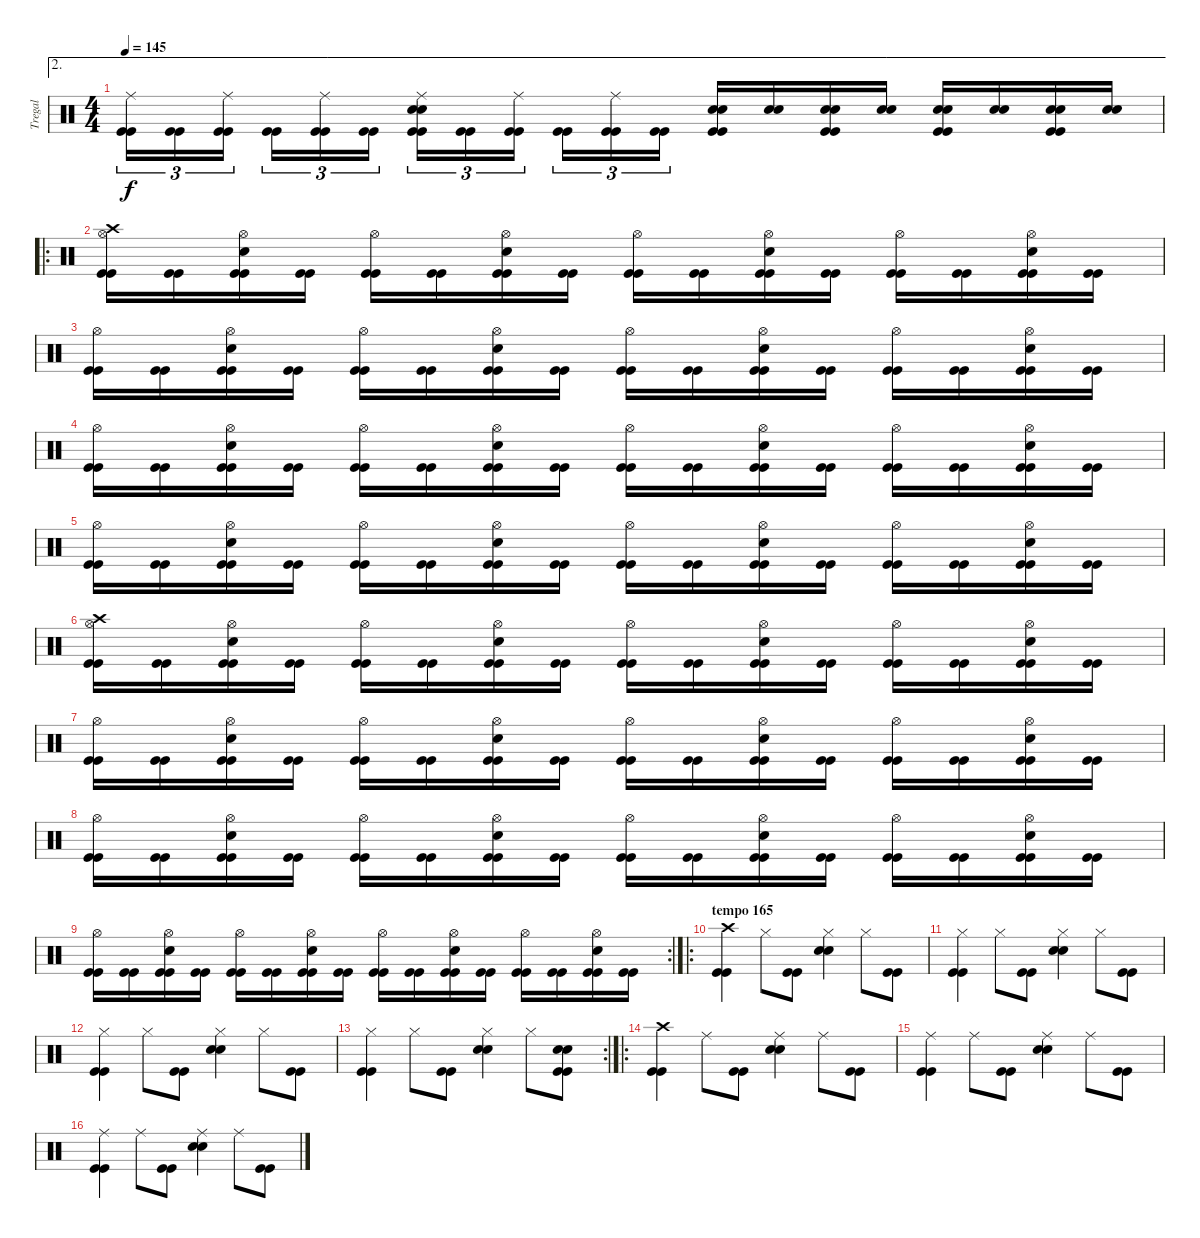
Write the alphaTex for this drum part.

\track ("Tregal" "Tregal") {instrument percussion}
\staff {score}
\articulation defaults
\ae 2
\ts (4 4)
\tempo 145
\clef neutral
\ks c
("Kick (hit)" "Kick (hit)" "Ride (middle)").16{tu (3 2) dy f} ("Kick (hit)" "Kick (hit)").16{tu (3 2)} ("Kick (hit)" "Kick (hit)" "Ride (middle)").16{tu (3 2)} ("Kick (hit)" "Kick (hit)").16{tu (3 2)} ("Kick (hit)" "Kick (hit)" "Ride (middle)").16{tu (3 2)} ("Kick (hit)" "Kick (hit)").16{tu (3 2)} ("Kick (hit)" "Kick (hit)" "Ride (middle)" "Snare (hit) 2" "Snare (hit) 2").16{tu (3 2)} ("Kick (hit)" "Kick (hit)").16{tu (3 2)} ("Kick (hit)" "Kick (hit)" "Ride (middle)").16{tu (3 2)} ("Kick (hit)" "Kick (hit)").16{tu (3 2)} ("Kick (hit)" "Kick (hit)" "Ride (middle)").16{tu (3 2)} ("Kick (hit)" "Kick (hit)").16{tu (3 2)} ("Kick (hit)" "Kick (hit)" "Snare (hit) 2" "Snare (hit) 2").16 ("Snare (hit) 2" "Snare (hit) 2").16 ("Kick (hit)" "Kick (hit)" "Snare (hit) 2" "Snare (hit) 2").16 ("Snare (hit) 2" "Snare (hit) 2").16 ("Kick (hit)" "Kick (hit)" "Snare (hit) 2" "Snare (hit) 2").16 ("Snare (hit) 2" "Snare (hit) 2").16 ("Kick (hit)" "Kick (hit)" "Snare (hit) 2" "Snare (hit) 2").16 ("Snare (hit) 2" "Snare (hit) 2").16 |
\ro
("Kick (hit)" "Kick (hit)" "Hi-Hat (open)" "Crash high (hit)").16 ("Kick (hit)" "Kick (hit)").16 ("Kick (hit)" "Kick (hit)" "Hi-Hat (open)" "Snare (hit) 2").16 ("Kick (hit)" "Kick (hit)").16 ("Kick (hit)" "Kick (hit)" "Hi-Hat (open)").16 ("Kick (hit)" "Kick (hit)").16 ("Kick (hit)" "Kick (hit)" "Hi-Hat (open)" "Snare (hit) 2").16 ("Kick (hit)" "Kick (hit)").16 ("Kick (hit)" "Kick (hit)" "Hi-Hat (open)").16 ("Kick (hit)" "Kick (hit)").16 ("Kick (hit)" "Kick (hit)" "Hi-Hat (open)" "Snare (hit) 2").16 ("Kick (hit)" "Kick (hit)").16 ("Kick (hit)" "Kick (hit)" "Hi-Hat (open)").16 ("Kick (hit)" "Kick (hit)").16 ("Kick (hit)" "Kick (hit)" "Hi-Hat (open)" "Snare (hit) 2").16 ("Kick (hit)" "Kick (hit)").16 |
("Kick (hit)" "Kick (hit)" "Hi-Hat (open)").16 ("Kick (hit)" "Kick (hit)").16 ("Kick (hit)" "Kick (hit)" "Hi-Hat (open)" "Snare (hit) 2").16 ("Kick (hit)" "Kick (hit)").16 ("Kick (hit)" "Kick (hit)" "Hi-Hat (open)").16 ("Kick (hit)" "Kick (hit)").16 ("Kick (hit)" "Kick (hit)" "Hi-Hat (open)" "Snare (hit) 2").16 ("Kick (hit)" "Kick (hit)").16 ("Kick (hit)" "Kick (hit)" "Hi-Hat (open)").16 ("Kick (hit)" "Kick (hit)").16 ("Kick (hit)" "Kick (hit)" "Hi-Hat (open)" "Snare (hit) 2").16 ("Kick (hit)" "Kick (hit)").16 ("Kick (hit)" "Kick (hit)" "Hi-Hat (open)").16 ("Kick (hit)" "Kick (hit)").16 ("Kick (hit)" "Kick (hit)" "Hi-Hat (open)" "Snare (hit) 2").16 ("Kick (hit)" "Kick (hit)").16 |
("Kick (hit)" "Kick (hit)" "Hi-Hat (open)").16 ("Kick (hit)" "Kick (hit)").16 ("Kick (hit)" "Kick (hit)" "Hi-Hat (open)" "Snare (hit) 2").16 ("Kick (hit)" "Kick (hit)").16 ("Kick (hit)" "Kick (hit)" "Hi-Hat (open)").16 ("Kick (hit)" "Kick (hit)").16 ("Kick (hit)" "Kick (hit)" "Hi-Hat (open)" "Snare (hit) 2").16 ("Kick (hit)" "Kick (hit)").16 ("Kick (hit)" "Kick (hit)" "Hi-Hat (open)").16 ("Kick (hit)" "Kick (hit)").16 ("Kick (hit)" "Kick (hit)" "Hi-Hat (open)" "Snare (hit) 2").16 ("Kick (hit)" "Kick (hit)").16 ("Kick (hit)" "Kick (hit)" "Hi-Hat (open)").16 ("Kick (hit)" "Kick (hit)").16 ("Kick (hit)" "Kick (hit)" "Hi-Hat (open)" "Snare (hit) 2").16 ("Kick (hit)" "Kick (hit)").16 |
("Kick (hit)" "Kick (hit)" "Hi-Hat (open)").16 ("Kick (hit)" "Kick (hit)").16 ("Kick (hit)" "Kick (hit)" "Hi-Hat (open)" "Snare (hit) 2").16 ("Kick (hit)" "Kick (hit)").16 ("Kick (hit)" "Kick (hit)" "Hi-Hat (open)").16 ("Kick (hit)" "Kick (hit)").16 ("Kick (hit)" "Kick (hit)" "Hi-Hat (open)" "Snare (hit) 2").16 ("Kick (hit)" "Kick (hit)").16 ("Kick (hit)" "Kick (hit)" "Hi-Hat (open)").16 ("Kick (hit)" "Kick (hit)").16 ("Kick (hit)" "Kick (hit)" "Hi-Hat (open)" "Snare (hit) 2").16 ("Kick (hit)" "Kick (hit)").16 ("Kick (hit)" "Kick (hit)" "Hi-Hat (open)").16 ("Kick (hit)" "Kick (hit)").16 ("Kick (hit)" "Kick (hit)" "Hi-Hat (open)" "Snare (hit) 2").16 ("Kick (hit)" "Kick (hit)").16 |
("Kick (hit)" "Kick (hit)" "Hi-Hat (open)" "Crash high (hit)").16 ("Kick (hit)" "Kick (hit)").16 ("Kick (hit)" "Kick (hit)" "Hi-Hat (open)" "Snare (hit) 2").16 ("Kick (hit)" "Kick (hit)").16 ("Kick (hit)" "Kick (hit)" "Hi-Hat (open)").16 ("Kick (hit)" "Kick (hit)").16 ("Kick (hit)" "Kick (hit)" "Hi-Hat (open)" "Snare (hit) 2").16 ("Kick (hit)" "Kick (hit)").16 ("Kick (hit)" "Kick (hit)" "Hi-Hat (open)").16 ("Kick (hit)" "Kick (hit)").16 ("Kick (hit)" "Kick (hit)" "Hi-Hat (open)" "Snare (hit) 2").16 ("Kick (hit)" "Kick (hit)").16 ("Kick (hit)" "Kick (hit)" "Hi-Hat (open)").16 ("Kick (hit)" "Kick (hit)").16 ("Kick (hit)" "Kick (hit)" "Hi-Hat (open)" "Snare (hit) 2").16 ("Kick (hit)" "Kick (hit)").16 |
("Kick (hit)" "Kick (hit)" "Hi-Hat (open)").16 ("Kick (hit)" "Kick (hit)").16 ("Kick (hit)" "Kick (hit)" "Hi-Hat (open)" "Snare (hit) 2").16 ("Kick (hit)" "Kick (hit)").16 ("Kick (hit)" "Kick (hit)" "Hi-Hat (open)").16 ("Kick (hit)" "Kick (hit)").16 ("Kick (hit)" "Kick (hit)" "Hi-Hat (open)" "Snare (hit) 2").16 ("Kick (hit)" "Kick (hit)").16 ("Kick (hit)" "Kick (hit)" "Hi-Hat (open)").16 ("Kick (hit)" "Kick (hit)").16 ("Kick (hit)" "Kick (hit)" "Hi-Hat (open)" "Snare (hit) 2").16 ("Kick (hit)" "Kick (hit)").16 ("Kick (hit)" "Kick (hit)" "Hi-Hat (open)").16 ("Kick (hit)" "Kick (hit)").16 ("Kick (hit)" "Kick (hit)" "Hi-Hat (open)" "Snare (hit) 2").16 ("Kick (hit)" "Kick (hit)").16 |
("Kick (hit)" "Kick (hit)" "Hi-Hat (open)").16 ("Kick (hit)" "Kick (hit)").16 ("Kick (hit)" "Kick (hit)" "Hi-Hat (open)" "Snare (hit) 2").16 ("Kick (hit)" "Kick (hit)").16 ("Kick (hit)" "Kick (hit)" "Hi-Hat (open)").16 ("Kick (hit)" "Kick (hit)").16 ("Kick (hit)" "Kick (hit)" "Hi-Hat (open)" "Snare (hit) 2").16 ("Kick (hit)" "Kick (hit)").16 ("Kick (hit)" "Kick (hit)" "Hi-Hat (open)").16 ("Kick (hit)" "Kick (hit)").16 ("Kick (hit)" "Kick (hit)" "Hi-Hat (open)" "Snare (hit) 2").16 ("Kick (hit)" "Kick (hit)").16 ("Kick (hit)" "Kick (hit)" "Hi-Hat (open)").16 ("Kick (hit)" "Kick (hit)").16 ("Kick (hit)" "Kick (hit)" "Hi-Hat (open)" "Snare (hit) 2").16 ("Kick (hit)" "Kick (hit)").16 |
\rc 2
("Kick (hit)" "Kick (hit)" "Hi-Hat (open)").16 ("Kick (hit)" "Kick (hit)").16 ("Kick (hit)" "Kick (hit)" "Hi-Hat (open)" "Snare (hit) 2").16 ("Kick (hit)" "Kick (hit)").16 ("Kick (hit)" "Kick (hit)" "Hi-Hat (open)").16 ("Kick (hit)" "Kick (hit)").16 ("Kick (hit)" "Kick (hit)" "Hi-Hat (open)" "Snare (hit) 2").16 ("Kick (hit)" "Kick (hit)").16 ("Kick (hit)" "Kick (hit)" "Hi-Hat (open)").16 ("Kick (hit)" "Kick (hit)").16 ("Kick (hit)" "Kick (hit)" "Hi-Hat (open)" "Snare (hit) 2").16 ("Kick (hit)" "Kick (hit)").16 ("Kick (hit)" "Kick (hit)" "Hi-Hat (open)").16 ("Kick (hit)" "Kick (hit)").16 ("Kick (hit)" "Kick (hit)" "Hi-Hat (open)" "Snare (hit) 2").16 ("Kick (hit)" "Kick (hit)").16 |
\ro
\section ("" "tempo 165")
("Crash high (hit)" "Kick (hit)" "Kick (hit)").4 "Hi-Hat (closed)".8 ("Kick (hit)" "Kick (hit)").8 ("Hi-Hat (closed)" "Snare (hit) 2" "Snare (hit) 2").4 "Hi-Hat (closed)".8 ("Kick (hit)" "Kick (hit)").8 |
("Kick (hit)" "Kick (hit)" "Hi-Hat (closed)").4 "Hi-Hat (closed)".8 ("Kick (hit)" "Kick (hit)").8 ("Hi-Hat (closed)" "Snare (hit) 2" "Snare (hit) 2").4 "Hi-Hat (closed)".8 ("Kick (hit)" "Kick (hit)").8 |
("Kick (hit)" "Kick (hit)" "Hi-Hat (closed)").4 "Hi-Hat (closed)".8 ("Kick (hit)" "Kick (hit)").8 ("Hi-Hat (closed)" "Snare (hit) 2" "Snare (hit) 2").4 "Hi-Hat (closed)".8 ("Kick (hit)" "Kick (hit)").8 |
\rc 2
("Kick (hit)" "Kick (hit)" "Hi-Hat (closed)").4 "Hi-Hat (closed)".8 ("Kick (hit)" "Kick (hit)").8 ("Hi-Hat (closed)" "Snare (hit) 2" "Snare (hit) 2").4 "Hi-Hat (closed)".8 ("Kick (hit)" "Kick (hit)" "Snare (hit) 2" "Snare (hit) 2").8 |
\ro
("Crash high (hit)" "Kick (hit)" "Kick (hit)").4 "Ride (middle)".8 ("Kick (hit)" "Kick (hit)").8 ("Ride (middle)" "Snare (hit) 2" "Snare (hit) 2").4 "Ride (middle)".8 ("Kick (hit)" "Kick (hit)").8 |
("Kick (hit)" "Kick (hit)" "Ride (middle)").4 "Ride (middle)".8 ("Kick (hit)" "Kick (hit)").8 ("Ride (middle)" "Snare (hit) 2" "Snare (hit) 2").4 "Ride (middle)".8 ("Kick (hit)" "Kick (hit)").8 |
("Kick (hit)" "Kick (hit)" "Ride (middle)").4 "Ride (middle)".8 ("Kick (hit)" "Kick (hit)").8 ("Ride (middle)" "Snare (hit) 2" "Snare (hit) 2").4 "Ride (middle)".8 ("Kick (hit)" "Kick (hit)").8
